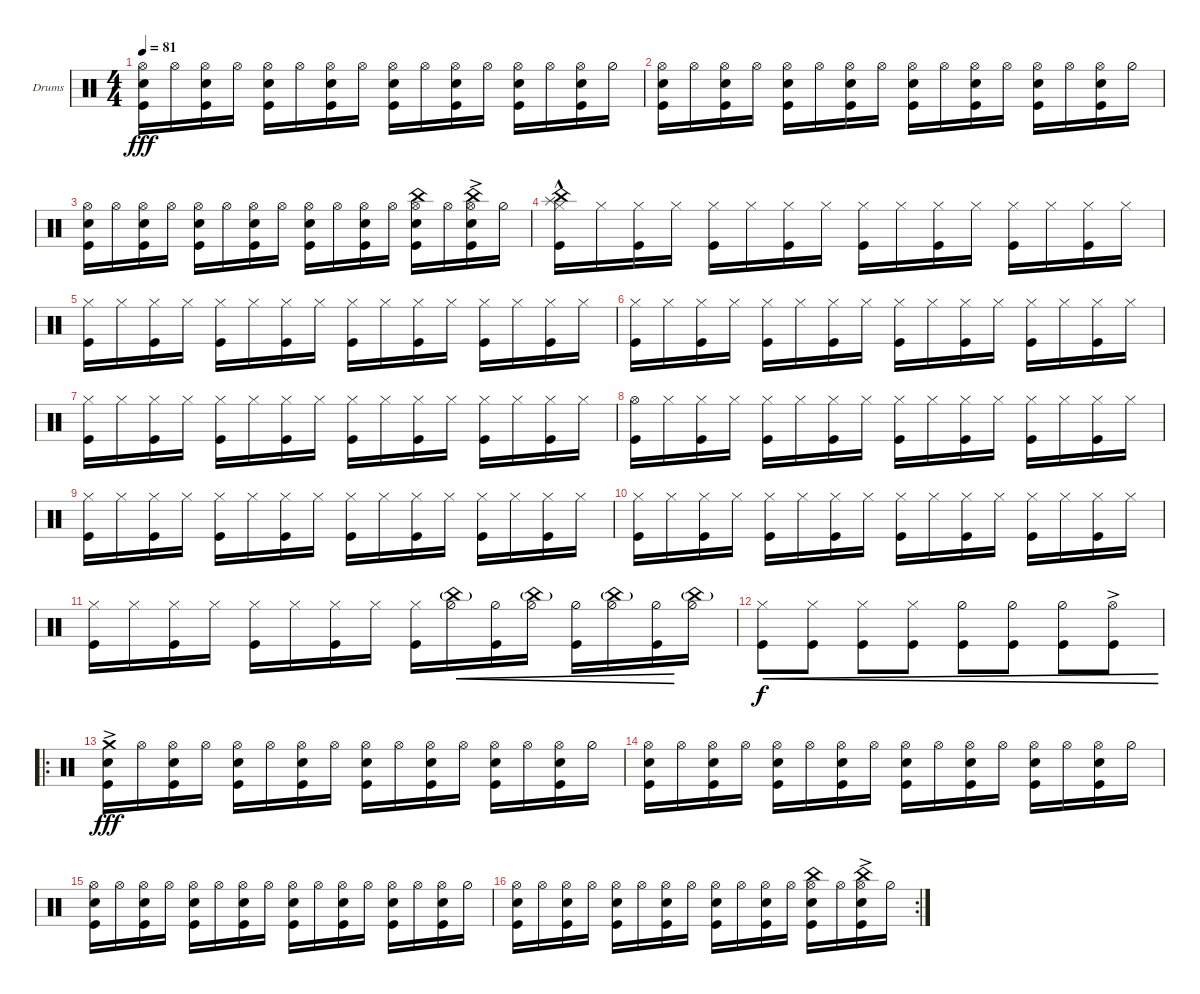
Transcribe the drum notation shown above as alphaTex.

\bracketExtendMode groupsimilarinstruments
\firstSystemTrackNameOrientation horizontal
\otherSystemsTrackNameOrientation horizontal
\track ("Drumkit" "Drums") {instrument percussion}
\staff {score}
\articulation defaults
\ts (4 4)
\tempo 81
\clef neutral
\ks c
("Hi-Hat (open)" "Kick (hit)" "Snare (hit) 2").16{dy fff} "Hi-Hat (open)".16 ("Hi-Hat (open)" "Kick (hit)" "Snare (hit) 2").16 "Hi-Hat (open)".16 ("Hi-Hat (open)" "Kick (hit)" "Snare (hit) 2").16 "Hi-Hat (open)".16 ("Hi-Hat (open)" "Kick (hit)" "Snare (hit) 2").16 "Hi-Hat (open)".16 ("Hi-Hat (open)" "Kick (hit)" "Snare (hit) 2").16 "Hi-Hat (open)".16 ("Hi-Hat (open)" "Kick (hit)" "Snare (hit) 2").16 "Hi-Hat (open)".16 ("Hi-Hat (open)" "Kick (hit)" "Snare (hit) 2").16 "Hi-Hat (open)".16 ("Hi-Hat (open)" "Kick (hit)" "Snare (hit) 2").16 "Hi-Hat (half)".16 |
("Hi-Hat (open)" "Kick (hit)" "Snare (hit) 2").16 "Hi-Hat (open)".16 ("Hi-Hat (open)" "Kick (hit)" "Snare (hit) 2").16 "Hi-Hat (open)".16 ("Hi-Hat (open)" "Kick (hit)" "Snare (hit) 2").16 "Hi-Hat (open)".16 ("Hi-Hat (open)" "Kick (hit)" "Snare (hit) 2").16 "Hi-Hat (open)".16 ("Hi-Hat (open)" "Kick (hit)" "Snare (hit) 2").16 "Hi-Hat (open)".16 ("Hi-Hat (open)" "Kick (hit)" "Snare (hit) 2").16 "Hi-Hat (open)".16 ("Hi-Hat (open)" "Kick (hit)" "Snare (hit) 2").16 "Hi-Hat (open)".16 ("Hi-Hat (open)" "Kick (hit)" "Snare (hit) 2").16 "Hi-Hat (half)".16 |
("Hi-Hat (open)" "Kick (hit)" "Snare (hit) 2").16 "Hi-Hat (open)".16 ("Hi-Hat (open)" "Kick (hit)" "Snare (hit) 2").16 "Hi-Hat (open)".16 ("Hi-Hat (open)" "Kick (hit)" "Snare (hit) 2").16 "Hi-Hat (open)".16 ("Hi-Hat (open)" "Kick (hit)" "Snare (hit) 2").16 "Hi-Hat (open)".16 ("Hi-Hat (open)" "Kick (hit)" "Snare (hit) 2").16 "Hi-Hat (open)".16 ("Hi-Hat (open)" "Kick (hit)" "Snare (hit) 2").16 "Hi-Hat (open)".16 ("Hi-Hat (open)" "Kick (hit)" "Snare (hit) 2" "China (hit)").16 "Hi-Hat (open)".16 ("Hi-Hat (open)" "Kick (hit)" "Snare (hit) 2" "China (hit)"{ac}).16 "Hi-Hat (half)".16 |
("Hi-Hat (closed)" "Kick (hit)" "Splash (hit)"{hac} "China (hit)"{hac}).16 "Hi-Hat (closed)".16 ("Hi-Hat (closed)" "Kick (hit)").16 "Hi-Hat (closed)".16 ("Hi-Hat (closed)" "Kick (hit)").16 "Hi-Hat (closed)".16 ("Hi-Hat (closed)" "Kick (hit)").16 "Hi-Hat (closed)".16 ("Hi-Hat (closed)" "Kick (hit)").16 "Hi-Hat (closed)".16 ("Hi-Hat (closed)" "Kick (hit)").16 "Hi-Hat (closed)".16 ("Hi-Hat (closed)" "Kick (hit)").16 "Hi-Hat (closed)".16 ("Hi-Hat (closed)" "Kick (hit)").16 "Hi-Hat (closed)".16 |
("Hi-Hat (closed)" "Kick (hit)").16 "Hi-Hat (closed)".16 ("Hi-Hat (closed)" "Kick (hit)").16 "Hi-Hat (closed)".16 ("Hi-Hat (closed)" "Kick (hit)").16 "Hi-Hat (closed)".16 ("Hi-Hat (closed)" "Kick (hit)").16 "Hi-Hat (closed)".16 ("Hi-Hat (closed)" "Kick (hit)").16 "Hi-Hat (closed)".16 ("Hi-Hat (closed)" "Kick (hit)").16 "Hi-Hat (closed)".16 ("Hi-Hat (closed)" "Kick (hit)").16 "Hi-Hat (closed)".16 ("Hi-Hat (closed)" "Kick (hit)").16 "Hi-Hat (closed)".16 |
("Hi-Hat (closed)" "Kick (hit)").16 "Hi-Hat (closed)".16 ("Hi-Hat (closed)" "Kick (hit)").16 "Hi-Hat (closed)".16 ("Hi-Hat (closed)" "Kick (hit)").16 "Hi-Hat (closed)".16 ("Hi-Hat (closed)" "Kick (hit)").16 "Hi-Hat (closed)".16 ("Hi-Hat (closed)" "Kick (hit)").16 "Hi-Hat (closed)".16 ("Hi-Hat (closed)" "Kick (hit)").16 "Hi-Hat (closed)".16 ("Hi-Hat (closed)" "Kick (hit)").16 "Hi-Hat (closed)".16 ("Hi-Hat (closed)" "Kick (hit)").16 "Hi-Hat (closed)".16 |
("Hi-Hat (closed)" "Kick (hit)").16 "Hi-Hat (closed)".16 ("Hi-Hat (closed)" "Kick (hit)").16 "Hi-Hat (closed)".16 ("Hi-Hat (closed)" "Kick (hit)").16 "Hi-Hat (closed)".16 ("Hi-Hat (closed)" "Kick (hit)").16 "Hi-Hat (closed)".16 ("Hi-Hat (closed)" "Kick (hit)").16 "Hi-Hat (closed)".16 ("Hi-Hat (closed)" "Kick (hit)").16 "Hi-Hat (closed)".16 ("Hi-Hat (closed)" "Kick (hit)").16 "Hi-Hat (closed)".16 ("Hi-Hat (closed)" "Kick (hit)").16 "Hi-Hat (closed)".16 |
("Hi-Hat (open)" "Kick (hit)").16 "Hi-Hat (closed)".16 ("Hi-Hat (closed)" "Kick (hit)").16 "Hi-Hat (closed)".16 ("Hi-Hat (closed)" "Kick (hit)").16 "Hi-Hat (closed)".16 ("Hi-Hat (closed)" "Kick (hit)").16 "Hi-Hat (closed)".16 ("Hi-Hat (closed)" "Kick (hit)").16 "Hi-Hat (closed)".16 ("Hi-Hat (closed)" "Kick (hit)").16 "Hi-Hat (closed)".16 ("Hi-Hat (closed)" "Kick (hit)").16 "Hi-Hat (closed)".16 ("Hi-Hat (closed)" "Kick (hit)").16 "Hi-Hat (closed)".16 |
("Hi-Hat (closed)" "Kick (hit)").16 "Hi-Hat (closed)".16 ("Hi-Hat (closed)" "Kick (hit)").16 "Hi-Hat (closed)".16 ("Hi-Hat (closed)" "Kick (hit)").16 "Hi-Hat (closed)".16 ("Hi-Hat (closed)" "Kick (hit)").16 "Hi-Hat (closed)".16 ("Hi-Hat (closed)" "Kick (hit)").16 "Hi-Hat (closed)".16 ("Hi-Hat (closed)" "Kick (hit)").16 "Hi-Hat (closed)".16 ("Hi-Hat (closed)" "Kick (hit)").16 "Hi-Hat (closed)".16 ("Hi-Hat (closed)" "Kick (hit)").16 "Hi-Hat (closed)".16 |
("Hi-Hat (closed)" "Kick (hit)").16 "Hi-Hat (closed)".16 ("Hi-Hat (closed)" "Kick (hit)").16 "Hi-Hat (closed)".16 ("Hi-Hat (closed)" "Kick (hit)").16 "Hi-Hat (closed)".16 ("Hi-Hat (closed)" "Kick (hit)").16 "Hi-Hat (closed)".16 ("Hi-Hat (closed)" "Kick (hit)").16 "Hi-Hat (closed)".16 ("Hi-Hat (closed)" "Kick (hit)").16 "Hi-Hat (closed)".16 ("Hi-Hat (closed)" "Kick (hit)").16 "Hi-Hat (closed)".16 ("Hi-Hat (closed)" "Kick (hit)").16 "Hi-Hat (closed)".16 |
("Hi-Hat (closed)" "Kick (hit)").16 "Hi-Hat (closed)".16 ("Hi-Hat (closed)" "Kick (hit)").16 "Hi-Hat (closed)".16 ("Hi-Hat (closed)" "Kick (hit)").16 "Hi-Hat (closed)".16 ("Hi-Hat (closed)" "Kick (hit)").16 "Hi-Hat (closed)".16 ("Hi-Hat (closed)" "Kick (hit)").16 ("Hi-Hat (half)" "China (hit)"{g}).16{cre} ("Hi-Hat (half)" "Kick (hit)").16{cre} ("Hi-Hat (half)" "China (hit)"{g}).16{cre} ("Hi-Hat (half)" "Kick (hit)").16{cre} ("Hi-Hat (half)" "China (hit)"{g}).16{cre} ("Hi-Hat (half)" "Kick (hit)").16{cre} ("Hi-Hat (half)" "China (hit)"{g}).16 |
("Kick (hit)" "Hi-Hat (closed)").8{cre dy f} ("Kick (hit)" "Hi-Hat (closed)").8{cre} ("Kick (hit)" "Hi-Hat (closed)").8{cre} ("Kick (hit)" "Hi-Hat (closed)").8{cre} ("Kick (hit)" "Hi-Hat (half)").8{cre} ("Kick (hit)" "Hi-Hat (half)").8{cre} ("Kick (hit)" "Hi-Hat (half)").8{cre} ("Kick (hit)" "Hi-Hat (open)"{ac}).8{cre} |
\ro
("Crash medium (hit)"{ac} "Kick (hit)" "Snare (hit) 2").16{dy fff} "Hi-Hat (open)".16 ("Hi-Hat (open)" "Kick (hit)" "Snare (hit) 2").16 "Hi-Hat (open)".16 ("Hi-Hat (open)" "Kick (hit)" "Snare (hit) 2").16 "Hi-Hat (open)".16 ("Hi-Hat (open)" "Kick (hit)" "Snare (hit) 2").16 "Hi-Hat (open)".16 ("Hi-Hat (open)" "Kick (hit)" "Snare (hit) 2").16 "Hi-Hat (open)".16 ("Hi-Hat (open)" "Kick (hit)" "Snare (hit) 2").16 "Hi-Hat (open)".16 ("Hi-Hat (open)" "Kick (hit)" "Snare (hit) 2").16 "Hi-Hat (open)".16 ("Hi-Hat (open)" "Kick (hit)" "Snare (hit) 2").16 "Hi-Hat (half)".16 |
("Hi-Hat (open)" "Kick (hit)" "Snare (hit) 2").16 "Hi-Hat (open)".16 ("Hi-Hat (open)" "Kick (hit)" "Snare (hit) 2").16 "Hi-Hat (open)".16 ("Hi-Hat (open)" "Kick (hit)" "Snare (hit) 2").16 "Hi-Hat (open)".16 ("Hi-Hat (open)" "Kick (hit)" "Snare (hit) 2").16 "Hi-Hat (open)".16 ("Hi-Hat (open)" "Kick (hit)" "Snare (hit) 2").16 "Hi-Hat (open)".16 ("Hi-Hat (open)" "Kick (hit)" "Snare (hit) 2").16 "Hi-Hat (open)".16 ("Hi-Hat (open)" "Kick (hit)" "Snare (hit) 2").16 "Hi-Hat (open)".16 ("Hi-Hat (open)" "Kick (hit)" "Snare (hit) 2").16 "Hi-Hat (half)".16 |
("Hi-Hat (open)" "Kick (hit)" "Snare (hit) 2").16 "Hi-Hat (open)".16 ("Hi-Hat (open)" "Kick (hit)" "Snare (hit) 2").16 "Hi-Hat (open)".16 ("Hi-Hat (open)" "Kick (hit)" "Snare (hit) 2").16 "Hi-Hat (open)".16 ("Hi-Hat (open)" "Kick (hit)" "Snare (hit) 2").16 "Hi-Hat (open)".16 ("Hi-Hat (open)" "Kick (hit)" "Snare (hit) 2").16 "Hi-Hat (open)".16 ("Hi-Hat (open)" "Kick (hit)" "Snare (hit) 2").16 "Hi-Hat (open)".16 ("Hi-Hat (open)" "Kick (hit)" "Snare (hit) 2").16 "Hi-Hat (open)".16 ("Hi-Hat (open)" "Kick (hit)" "Snare (hit) 2").16 "Hi-Hat (half)".16 |
\rc 2
("Hi-Hat (open)" "Kick (hit)" "Snare (hit) 2").16 "Hi-Hat (open)".16 ("Hi-Hat (open)" "Kick (hit)" "Snare (hit) 2").16 "Hi-Hat (open)".16 ("Hi-Hat (open)" "Kick (hit)" "Snare (hit) 2").16 "Hi-Hat (open)".16 ("Hi-Hat (open)" "Kick (hit)" "Snare (hit) 2").16 "Hi-Hat (open)".16 ("Hi-Hat (open)" "Kick (hit)" "Snare (hit) 2").16 "Hi-Hat (open)".16 ("Hi-Hat (open)" "Kick (hit)" "Snare (hit) 2").16 "Hi-Hat (open)".16 ("Hi-Hat (open)" "Kick (hit)" "Snare (hit) 2" "China (hit)").16 "Hi-Hat (open)".16 ("Hi-Hat (open)" "Kick (hit)" "Snare (hit) 2" "China (hit)"{ac}).16 "Hi-Hat (half)".16
